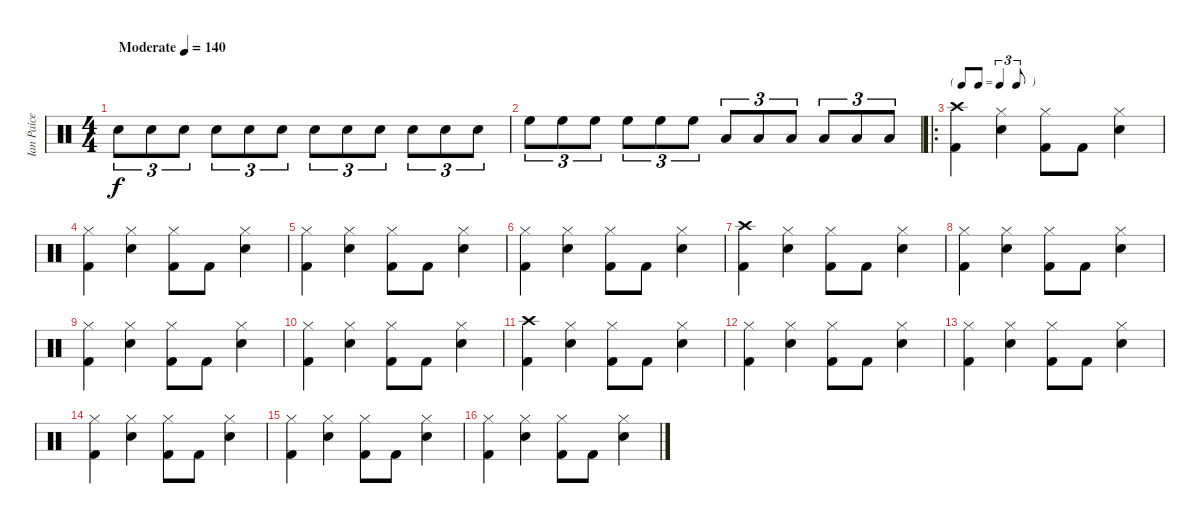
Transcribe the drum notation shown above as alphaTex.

\track ("Ian Paice" "Ian Paice") {instrument percussion}
\staff {score}
\articulation defaults
\ts (4 4)
\tempo (140 "Moderate")
\clef neutral
\ks c "Electric Snare (hit)".8{tu (3 2) dy f} "Electric Snare (hit)".8{tu (3 2)} "Electric Snare (hit)".8{tu (3 2)} "Electric Snare (hit)".8{tu (3 2)} "Electric Snare (hit)".8{tu (3 2)} "Electric Snare (hit)".8{tu (3 2)} "Snare (hit) 2".8{tu (3 2)} "Snare (hit) 2".8{tu (3 2)} "Snare (hit) 2".8{tu (3 2)} "Snare (hit) 2".8{tu (3 2)} "Snare (hit) 2".8{tu (3 2)} "Snare (hit) 2".8{tu (3 2)}
|
"High Floor Tom (hit)".8{tu (3 2)} "High Floor Tom (hit)".8{tu (3 2)} "High Floor Tom (hit)".8{tu (3 2)} "High Floor Tom (hit)".8{tu (3 2)} "High Floor Tom (hit)".8{tu (3 2)} "High Floor Tom (hit)".8{tu (3 2)} "Low Tom (hit)".8{tu (3 2)} "Low Tom (hit)".8{tu (3 2)} "Low Tom (hit)".8{tu (3 2)} "Low Tom (hit)".8{tu (3 2)} "Low Tom (hit)".8{tu (3 2)} "Low Tom (hit)".8{tu (3 2)} |
\ro
\tf triplet8th
("Crash high (hit)" "Kick (hit) 2").4 ("Hi-Hat (closed)" "Electric Snare (hit)").4 ("Hi-Hat (closed)" "Kick (hit) 2").8 "Kick (hit) 2".8 ("Hi-Hat (closed)" "Electric Snare (hit)").4 |
("Hi-Hat (closed)" "Kick (hit) 2").4 ("Hi-Hat (closed)" "Electric Snare (hit)").4 ("Hi-Hat (closed)" "Kick (hit) 2").8 "Kick (hit) 2".8 ("Hi-Hat (closed)" "Electric Snare (hit)").4 |
("Hi-Hat (closed)" "Kick (hit) 2").4 ("Hi-Hat (closed)" "Electric Snare (hit)").4 ("Hi-Hat (closed)" "Kick (hit) 2").8 "Kick (hit) 2".8 ("Hi-Hat (closed)" "Electric Snare (hit)").4 |
("Hi-Hat (closed)" "Kick (hit) 2").4 ("Hi-Hat (closed)" "Electric Snare (hit)").4 ("Hi-Hat (closed)" "Kick (hit) 2").8 "Kick (hit) 2".8 ("Hi-Hat (closed)" "Electric Snare (hit)").4 |
("Crash high (hit)" "Kick (hit) 2").4 ("Hi-Hat (closed)" "Electric Snare (hit)").4 ("Hi-Hat (closed)" "Kick (hit) 2").8 "Kick (hit) 2".8 ("Hi-Hat (closed)" "Electric Snare (hit)").4 |
("Hi-Hat (closed)" "Kick (hit) 2").4 ("Hi-Hat (closed)" "Electric Snare (hit)").4 ("Hi-Hat (closed)" "Kick (hit) 2").8 "Kick (hit) 2".8 ("Hi-Hat (closed)" "Electric Snare (hit)").4 |
("Hi-Hat (closed)" "Kick (hit) 2").4 ("Hi-Hat (closed)" "Electric Snare (hit)").4 ("Hi-Hat (closed)" "Kick (hit) 2").8 "Kick (hit) 2".8 ("Hi-Hat (closed)" "Electric Snare (hit)").4 |
("Hi-Hat (closed)" "Kick (hit) 2").4 ("Hi-Hat (closed)" "Electric Snare (hit)").4 ("Hi-Hat (closed)" "Kick (hit) 2").8 "Kick (hit) 2".8 ("Hi-Hat (closed)" "Electric Snare (hit)").4 |
("Crash high (hit)" "Kick (hit) 2").4 ("Hi-Hat (closed)" "Electric Snare (hit)").4 ("Hi-Hat (closed)" "Kick (hit) 2").8 "Kick (hit) 2".8 ("Hi-Hat (closed)" "Electric Snare (hit)").4 |
("Hi-Hat (closed)" "Kick (hit) 2").4 ("Hi-Hat (closed)" "Electric Snare (hit)").4 ("Hi-Hat (closed)" "Kick (hit) 2").8 "Kick (hit) 2".8 ("Hi-Hat (closed)" "Electric Snare (hit)").4 |
("Hi-Hat (closed)" "Kick (hit) 2").4 ("Hi-Hat (closed)" "Electric Snare (hit)").4 ("Hi-Hat (closed)" "Kick (hit) 2").8 "Kick (hit) 2".8 ("Hi-Hat (closed)" "Electric Snare (hit)").4 |
("Hi-Hat (closed)" "Kick (hit) 2").4 ("Hi-Hat (closed)" "Electric Snare (hit)").4 ("Hi-Hat (closed)" "Kick (hit) 2").8 "Kick (hit) 2".8 ("Hi-Hat (closed)" "Electric Snare (hit)").4 |
("Hi-Hat (closed)" "Kick (hit) 2").4 ("Hi-Hat (closed)" "Electric Snare (hit)").4 ("Hi-Hat (closed)" "Kick (hit) 2").8 "Kick (hit) 2".8 ("Hi-Hat (closed)" "Electric Snare (hit)").4 |
("Hi-Hat (closed)" "Kick (hit) 2").4 ("Hi-Hat (closed)" "Electric Snare (hit)").4 ("Hi-Hat (closed)" "Kick (hit) 2").8 "Kick (hit) 2".8 ("Hi-Hat (closed)" "Electric Snare (hit)").4
